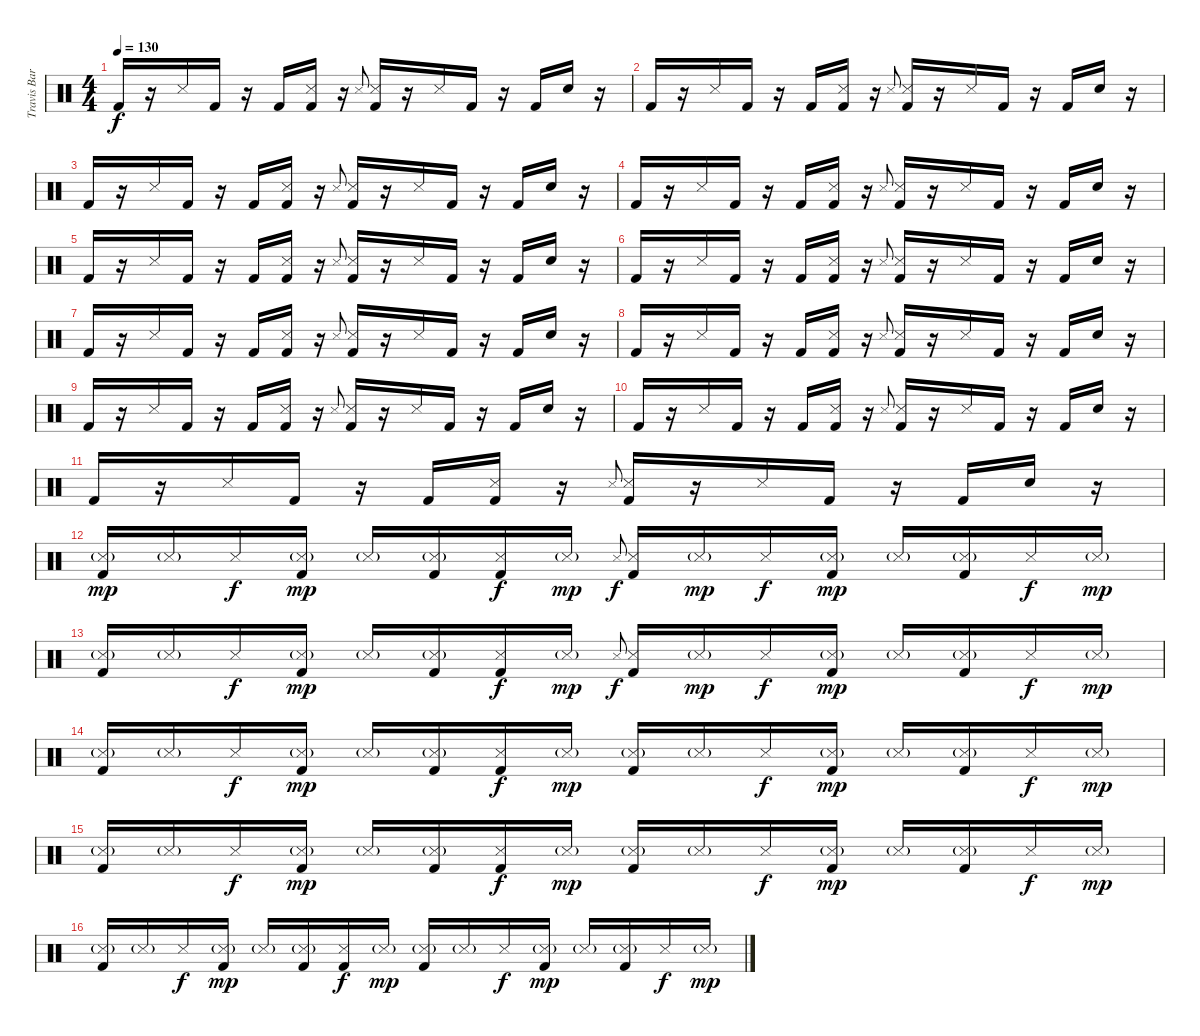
\track ("Travis Barker [Drums]" "Travis Bar") {instrument percussion}
\staff {score}
\articulation defaults
\ts (4 4)
\tempo 130
\clef neutral
\ks c "Kick (hit) 2".16{dy f}
r.16 "Snare (side stick) 3".16 "Kick (hit) 2".16 r.16 "Kick (hit) 2".16 ("Snare (side stick) 3" "Kick (hit) 2").16 r.16 "Snare (side stick) 3"{x}.8{gr onbeat} ("Snare (side stick) 3" "Kick (hit) 2").16 r.16 "Snare (side stick) 3".16 "Kick (hit) 2".16 r.16 "Kick (hit) 2".16 "Electric Snare (hit)".16 r.16 |
"Kick (hit) 2".16 r.16 "Snare (side stick) 3".16 "Kick (hit) 2".16 r.16 "Kick (hit) 2".16 ("Snare (side stick) 3" "Kick (hit) 2").16 r.16 "Snare (side stick) 3"{x}.8{gr onbeat} ("Snare (side stick) 3" "Kick (hit) 2").16 r.16 "Snare (side stick) 3".16 "Kick (hit) 2".16 r.16 "Kick (hit) 2".16 "Electric Snare (hit)".16 r.16 |
"Kick (hit) 2".16 r.16 "Snare (side stick) 3".16 "Kick (hit) 2".16 r.16 "Kick (hit) 2".16 ("Snare (side stick) 3" "Kick (hit) 2").16 r.16 "Snare (side stick) 3"{x}.8{gr onbeat} ("Snare (side stick) 3" "Kick (hit) 2").16 r.16 "Snare (side stick) 3".16 "Kick (hit) 2".16 r.16 "Kick (hit) 2".16 "Electric Snare (hit)".16 r.16 |
"Kick (hit) 2".16 r.16 "Snare (side stick) 3".16 "Kick (hit) 2".16 r.16 "Kick (hit) 2".16 ("Snare (side stick) 3" "Kick (hit) 2").16 r.16 "Snare (side stick) 3"{x}.8{gr onbeat} ("Snare (side stick) 3" "Kick (hit) 2").16 r.16 "Snare (side stick) 3".16 "Kick (hit) 2".16 r.16 "Kick (hit) 2".16 "Electric Snare (hit)".16 r.16 |
"Kick (hit) 2".16 r.16 "Snare (side stick) 3".16 "Kick (hit) 2".16 r.16 "Kick (hit) 2".16 ("Snare (side stick) 3" "Kick (hit) 2").16 r.16 "Snare (side stick) 3"{x}.8{gr onbeat} ("Snare (side stick) 3" "Kick (hit) 2").16 r.16 "Snare (side stick) 3".16 "Kick (hit) 2".16 r.16 "Kick (hit) 2".16 "Electric Snare (hit)".16 r.16 |
"Kick (hit) 2".16 r.16 "Snare (side stick) 3".16 "Kick (hit) 2".16 r.16 "Kick (hit) 2".16 ("Snare (side stick) 3" "Kick (hit) 2").16 r.16 "Snare (side stick) 3"{x}.8{gr onbeat} ("Snare (side stick) 3" "Kick (hit) 2").16 r.16 "Snare (side stick) 3".16 "Kick (hit) 2".16 r.16 "Kick (hit) 2".16 "Electric Snare (hit)".16 r.16 |
"Kick (hit) 2".16 r.16 "Snare (side stick) 3".16 "Kick (hit) 2".16 r.16 "Kick (hit) 2".16 ("Snare (side stick) 3" "Kick (hit) 2").16 r.16 "Snare (side stick) 3"{x}.8{gr onbeat} ("Snare (side stick) 3" "Kick (hit) 2").16 r.16 "Snare (side stick) 3".16 "Kick (hit) 2".16 r.16 "Kick (hit) 2".16 "Electric Snare (hit)".16 r.16 |
"Kick (hit) 2".16 r.16 "Snare (side stick) 3".16 "Kick (hit) 2".16 r.16 "Kick (hit) 2".16 ("Snare (side stick) 3" "Kick (hit) 2").16 r.16 "Snare (side stick) 3"{x}.8{gr onbeat} ("Snare (side stick) 3" "Kick (hit) 2").16 r.16 "Snare (side stick) 3".16 "Kick (hit) 2".16 r.16 "Kick (hit) 2".16 "Electric Snare (hit)".16 r.16 |
"Kick (hit) 2".16 r.16 "Snare (side stick) 3".16 "Kick (hit) 2".16 r.16 "Kick (hit) 2".16 ("Snare (side stick) 3" "Kick (hit) 2").16 r.16 "Snare (side stick) 3"{x}.8{gr onbeat} ("Snare (side stick) 3" "Kick (hit) 2").16 r.16 "Snare (side stick) 3".16 "Kick (hit) 2".16 r.16 "Kick (hit) 2".16 "Electric Snare (hit)".16 r.16 |
"Kick (hit) 2".16 r.16 "Snare (side stick) 3".16 "Kick (hit) 2".16 r.16 "Kick (hit) 2".16 ("Snare (side stick) 3" "Kick (hit) 2").16 r.16 "Snare (side stick) 3"{x}.8{gr onbeat} ("Snare (side stick) 3" "Kick (hit) 2").16 r.16 "Snare (side stick) 3".16 "Kick (hit) 2".16 r.16 "Kick (hit) 2".16 "Electric Snare (hit)".16 r.16 |
"Kick (hit) 2".16 r.16 "Snare (side stick) 3".16 "Kick (hit) 2".16 r.16 "Kick (hit) 2".16 ("Snare (side stick) 3" "Kick (hit) 2").16 r.16 "Snare (side stick) 3"{x}.8{gr onbeat} ("Snare (side stick) 3" "Kick (hit) 2").16 r.16 "Snare (side stick) 3".16 "Kick (hit) 2".16 r.16 "Kick (hit) 2".16 "Electric Snare (hit)".16 r.16 |
("Snare (side stick) 3"{g} "Kick (hit) 2").16{dy mp} "Snare (side stick) 3"{g}.16 "Snare (side stick) 3".16{dy f} ("Snare (side stick) 3"{g} "Kick (hit) 2").16{dy mp} "Snare (side stick) 3"{g}.16 ("Snare (side stick) 3"{g} "Kick (hit) 2").16 ("Snare (side stick) 3" "Kick (hit) 2").16{dy f} "Snare (side stick) 3"{g}.16{dy mp} "Snare (side stick) 3"{x}.8{gr onbeat dy f} ("Snare (side stick) 3" "Kick (hit) 2").16 "Snare (side stick) 3"{g}.16{dy mp} "Snare (side stick) 3".16{dy f} ("Snare (side stick) 3"{g} "Kick (hit) 2").16{dy mp} "Snare (side stick) 3"{g}.16 ("Snare (side stick) 3"{g} "Kick (hit) 2").16 "Snare (side stick) 3".16{dy f} "Snare (side stick) 3"{g}.16{dy mp} |
("Snare (side stick) 3"{g} "Kick (hit) 2").16 "Snare (side stick) 3"{g}.16 "Snare (side stick) 3".16{dy f} ("Snare (side stick) 3"{g} "Kick (hit) 2").16{dy mp} "Snare (side stick) 3"{g}.16 ("Snare (side stick) 3"{g} "Kick (hit) 2").16 ("Snare (side stick) 3" "Kick (hit) 2").16{dy f} "Snare (side stick) 3"{g}.16{dy mp} "Snare (side stick) 3"{x}.8{gr onbeat dy f} ("Snare (side stick) 3" "Kick (hit) 2").16 "Snare (side stick) 3"{g}.16{dy mp} "Snare (side stick) 3".16{dy f} ("Snare (side stick) 3"{g} "Kick (hit) 2").16{dy mp} "Snare (side stick) 3"{g}.16 ("Snare (side stick) 3"{g} "Kick (hit) 2").16 "Snare (side stick) 3".16{dy f} "Snare (side stick) 3"{g}.16{dy mp} |
("Snare (side stick) 3"{g} "Kick (hit) 2").16 "Snare (side stick) 3"{g}.16 "Snare (side stick) 3".16{dy f} ("Snare (side stick) 3"{g} "Kick (hit) 2").16{dy mp} "Snare (side stick) 3"{g}.16 ("Snare (side stick) 3"{g} "Kick (hit) 2").16 ("Snare (side stick) 3" "Kick (hit) 2").16{dy f} "Snare (side stick) 3"{g}.16{dy mp} ("Snare (side stick) 3"{g} "Kick (hit) 2").16 "Snare (side stick) 3"{g}.16 "Snare (side stick) 3".16{dy f} ("Snare (side stick) 3"{g} "Kick (hit) 2").16{dy mp} "Snare (side stick) 3"{g}.16 ("Snare (side stick) 3"{g} "Kick (hit) 2").16 "Snare (side stick) 3".16{dy f} "Snare (side stick) 3"{g}.16{dy mp} |
("Snare (side stick) 3"{g} "Kick (hit) 2").16 "Snare (side stick) 3"{g}.16 "Snare (side stick) 3".16{dy f} ("Snare (side stick) 3"{g} "Kick (hit) 2").16{dy mp} "Snare (side stick) 3"{g}.16 ("Snare (side stick) 3"{g} "Kick (hit) 2").16 ("Snare (side stick) 3" "Kick (hit) 2").16{dy f} "Snare (side stick) 3"{g}.16{dy mp} ("Snare (side stick) 3"{g} "Kick (hit) 2").16 "Snare (side stick) 3"{g}.16 "Snare (side stick) 3".16{dy f} ("Snare (side stick) 3"{g} "Kick (hit) 2").16{dy mp} "Snare (side stick) 3"{g}.16 ("Snare (side stick) 3"{g} "Kick (hit) 2").16 "Snare (side stick) 3".16{dy f} "Snare (side stick) 3"{g}.16{dy mp} |
("Snare (side stick) 3"{g} "Kick (hit) 2").16 "Snare (side stick) 3"{g}.16 "Snare (side stick) 3".16{dy f} ("Snare (side stick) 3"{g} "Kick (hit) 2").16{dy mp} "Snare (side stick) 3"{g}.16 ("Snare (side stick) 3"{g} "Kick (hit) 2").16 ("Snare (side stick) 3" "Kick (hit) 2").16{dy f} "Snare (side stick) 3"{g}.16{dy mp} ("Snare (side stick) 3"{g} "Kick (hit) 2").16 "Snare (side stick) 3"{g}.16 "Snare (side stick) 3".16{dy f} ("Snare (side stick) 3"{g} "Kick (hit) 2").16{dy mp} "Snare (side stick) 3"{g}.16 ("Snare (side stick) 3"{g} "Kick (hit) 2").16 "Snare (side stick) 3".16{dy f} "Snare (side stick) 3"{g}.16{dy mp}
